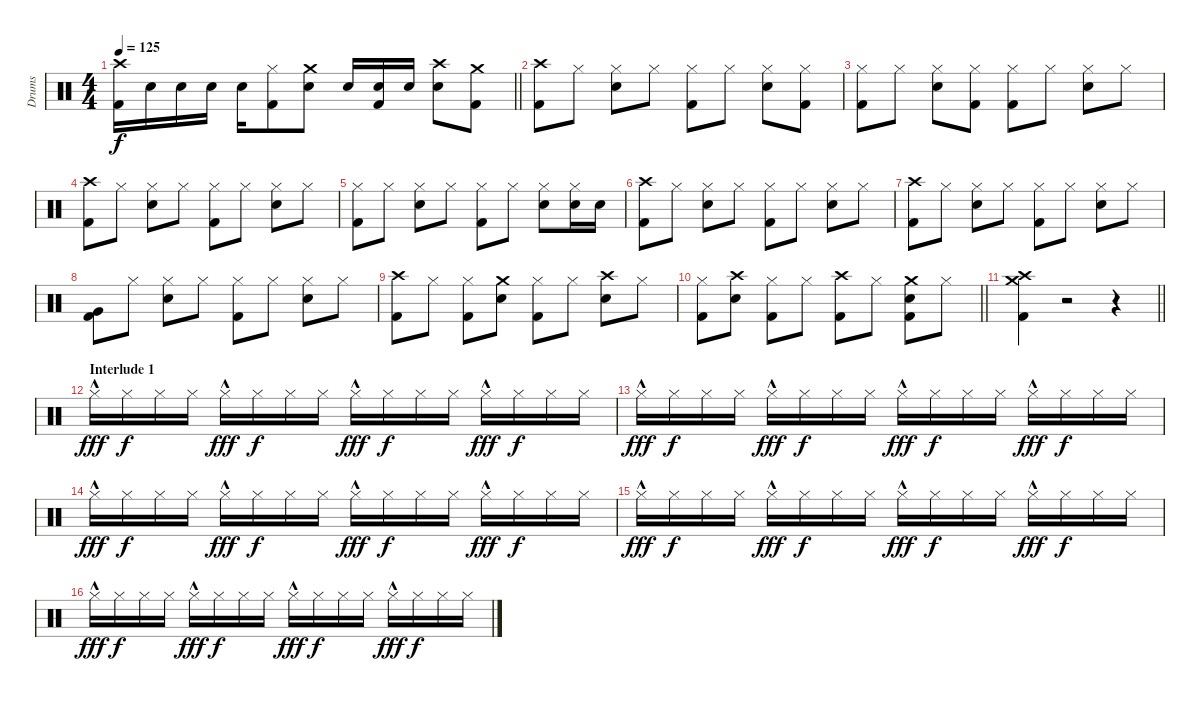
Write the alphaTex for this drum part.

\track ("Drums" "Drums") {instrument percussion}
\staff {score}
\articulation defaults
\ts (4 4)
\tempo 125
\clef neutral
\barLineRight lightlight
\ks c
("Crash high (hit)" "Kick (hit) 2").16{dy f} "Electric Snare (hit)".16 "Electric Snare (hit)".16 "Electric Snare (hit)".16 "Electric Snare (hit)".16 ("Hi-Hat (closed)" "Kick (hit) 2").8 ("Crash medium (hit)" "Electric Snare (hit)").8 "Electric Snare (hit)".16 ("Electric Snare (hit)" "Kick (hit) 2").16 "Electric Snare (hit)".16 ("Crash high (hit)" "Electric Snare (hit)").8 ("Crash medium (hit)" "Kick (hit) 2").8 |
("Crash high (hit)" "Kick (hit) 2").8 "Hi-Hat (closed)".8 ("Hi-Hat (closed)" "Electric Snare (hit)").8 "Hi-Hat (closed)".8 ("Hi-Hat (closed)" "Kick (hit) 2").8 "Hi-Hat (closed)".8 ("Hi-Hat (closed)" "Electric Snare (hit)").8 ("Hi-Hat (closed)" "Kick (hit) 2").8 |
("Hi-Hat (closed)" "Kick (hit) 2").8 "Hi-Hat (closed)".8 ("Hi-Hat (closed)" "Electric Snare (hit)").8 ("Hi-Hat (closed)" "Kick (hit) 2").8 ("Hi-Hat (closed)" "Kick (hit) 2").8 "Hi-Hat (closed)".8 ("Hi-Hat (closed)" "Electric Snare (hit)").8 "Hi-Hat (closed)".8 |
("Crash high (hit)" "Kick (hit) 2").8 "Hi-Hat (closed)".8 ("Hi-Hat (closed)" "Electric Snare (hit)").8 "Hi-Hat (closed)".8 ("Hi-Hat (closed)" "Kick (hit) 2").8 "Hi-Hat (closed)".8 ("Hi-Hat (closed)" "Electric Snare (hit)").8 "Hi-Hat (closed)".8 |
("Hi-Hat (closed)" "Kick (hit) 2").8 "Hi-Hat (closed)".8 ("Hi-Hat (closed)" "Electric Snare (hit)").8 "Hi-Hat (closed)".8 ("Hi-Hat (closed)" "Kick (hit) 2").8 "Hi-Hat (closed)".8 ("Hi-Hat (closed)" "Electric Snare (hit)").8 ("Hi-Hat (closed)" "Electric Snare (hit)").16 "Electric Snare (hit)".16 |
("Crash high (hit)" "Kick (hit) 2").8 "Hi-Hat (closed)".8 ("Hi-Hat (closed)" "Electric Snare (hit)").8 "Hi-Hat (closed)".8 ("Hi-Hat (closed)" "Kick (hit) 2").8 "Hi-Hat (closed)".8 ("Hi-Hat (closed)" "Electric Snare (hit)").8 "Hi-Hat (closed)".8 |
("Crash high (hit)" "Kick (hit) 2").8 "Hi-Hat (closed)".8 ("Hi-Hat (closed)" "Electric Snare (hit)").8 "Hi-Hat (closed)".8 ("Hi-Hat (closed)" "Kick (hit) 2").8 "Hi-Hat (closed)".8 ("Hi-Hat (closed)" "Electric Snare (hit)").8 "Hi-Hat (closed)".8 |
("Very Low Tom (hit)" "Kick (hit) 2").8 "Hi-Hat (closed)".8 ("Hi-Hat (closed)" "Electric Snare (hit)").8 "Hi-Hat (closed)".8 ("Hi-Hat (closed)" "Kick (hit) 2").8 "Hi-Hat (closed)".8 ("Hi-Hat (closed)" "Electric Snare (hit)").8 "Hi-Hat (closed)".8 |
("Crash high (hit)" "Kick (hit) 2").8 "Hi-Hat (closed)".8 ("Hi-Hat (closed)" "Kick (hit) 2").8 ("Crash medium (hit)" "Electric Snare (hit)").8 ("Hi-Hat (closed)" "Kick (hit) 2").8 "Hi-Hat (closed)".8 ("Crash high (hit)" "Electric Snare (hit)").8 "Hi-Hat (closed)".8 |
\barLineRight lightlight
("Hi-Hat (closed)" "Kick (hit) 2").8 ("Crash high (hit)" "Electric Snare (hit)").8 ("Hi-Hat (closed)" "Kick (hit) 2").8 "Hi-Hat (closed)".8 ("Crash high (hit)" "Kick (hit) 2").8 "Hi-Hat (closed)".8 ("Crash medium (hit)" "Electric Snare (hit)" "Kick (hit) 2").8 "Hi-Hat (closed)".8 |
\barLineRight lightlight
("Crash high (hit)" "Crash medium (hit)" "Kick (hit) 2").4 r.2 r.4 |
\section ("" "Interlude 1")
"Hi-Hat (closed)"{hac}.16{dy fff} "Hi-Hat (closed)".16{dy f} "Hi-Hat (closed)".16 "Hi-Hat (closed)".16 "Hi-Hat (closed)"{hac}.16{dy fff} "Hi-Hat (closed)".16{dy f} "Hi-Hat (closed)".16 "Hi-Hat (closed)".16 "Hi-Hat (closed)"{hac}.16{dy fff} "Hi-Hat (closed)".16{dy f} "Hi-Hat (closed)".16 "Hi-Hat (closed)".16 "Hi-Hat (closed)"{hac}.16{dy fff} "Hi-Hat (closed)".16{dy f} "Hi-Hat (closed)".16 "Hi-Hat (closed)".16 |
"Hi-Hat (closed)"{hac}.16{dy fff} "Hi-Hat (closed)".16{dy f} "Hi-Hat (closed)".16 "Hi-Hat (closed)".16 "Hi-Hat (closed)"{hac}.16{dy fff} "Hi-Hat (closed)".16{dy f} "Hi-Hat (closed)".16 "Hi-Hat (closed)".16 "Hi-Hat (closed)"{hac}.16{dy fff} "Hi-Hat (closed)".16{dy f} "Hi-Hat (closed)".16 "Hi-Hat (closed)".16 "Hi-Hat (closed)"{hac}.16{dy fff} "Hi-Hat (closed)".16{dy f} "Hi-Hat (closed)".16 "Hi-Hat (closed)".16 |
"Hi-Hat (closed)"{hac}.16{dy fff} "Hi-Hat (closed)".16{dy f} "Hi-Hat (closed)".16 "Hi-Hat (closed)".16 "Hi-Hat (closed)"{hac}.16{dy fff} "Hi-Hat (closed)".16{dy f} "Hi-Hat (closed)".16 "Hi-Hat (closed)".16 "Hi-Hat (closed)"{hac}.16{dy fff} "Hi-Hat (closed)".16{dy f} "Hi-Hat (closed)".16 "Hi-Hat (closed)".16 "Hi-Hat (closed)"{hac}.16{dy fff} "Hi-Hat (closed)".16{dy f} "Hi-Hat (closed)".16 "Hi-Hat (closed)".16 |
"Hi-Hat (closed)"{hac}.16{dy fff} "Hi-Hat (closed)".16{dy f} "Hi-Hat (closed)".16 "Hi-Hat (closed)".16 "Hi-Hat (closed)"{hac}.16{dy fff} "Hi-Hat (closed)".16{dy f} "Hi-Hat (closed)".16 "Hi-Hat (closed)".16 "Hi-Hat (closed)"{hac}.16{dy fff} "Hi-Hat (closed)".16{dy f} "Hi-Hat (closed)".16 "Hi-Hat (closed)".16 "Hi-Hat (closed)"{hac}.16{dy fff} "Hi-Hat (closed)".16{dy f} "Hi-Hat (closed)".16 "Hi-Hat (closed)".16 |
"Hi-Hat (closed)"{hac}.16{dy fff} "Hi-Hat (closed)".16{dy f} "Hi-Hat (closed)".16 "Hi-Hat (closed)".16 "Hi-Hat (closed)"{hac}.16{dy fff} "Hi-Hat (closed)".16{dy f} "Hi-Hat (closed)".16 "Hi-Hat (closed)".16 "Hi-Hat (closed)"{hac}.16{dy fff} "Hi-Hat (closed)".16{dy f} "Hi-Hat (closed)".16 "Hi-Hat (closed)".16 "Hi-Hat (closed)"{hac}.16{dy fff} "Hi-Hat (closed)".16{dy f} "Hi-Hat (closed)".16 "Hi-Hat (closed)".16
